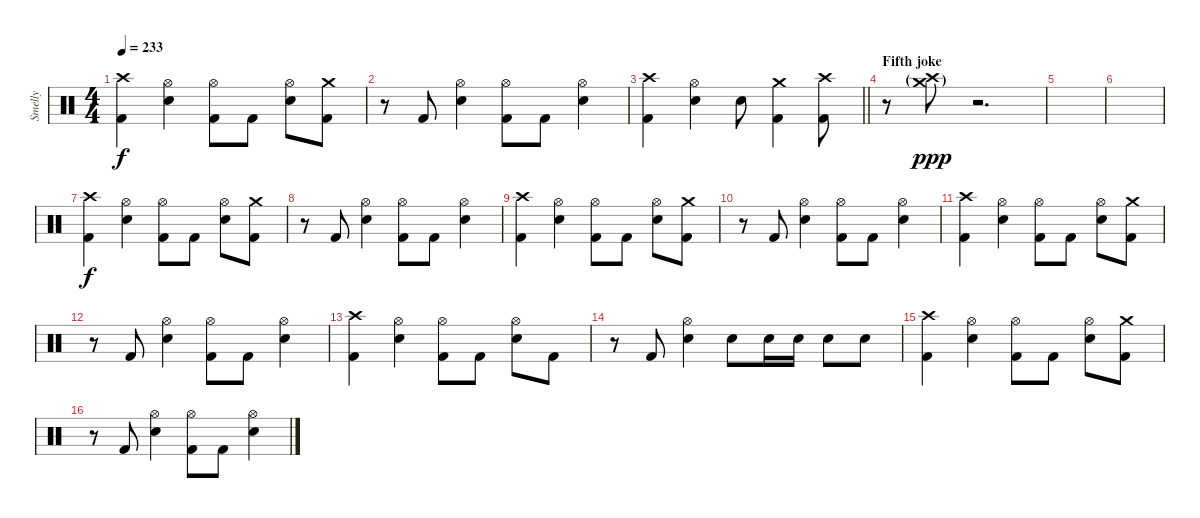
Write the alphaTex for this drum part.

\track ("Smelly" "Smelly") {instrument percussion}
\staff {score}
\articulation defaults
\ts (4 4)
\tempo 233
\clef neutral
\ks c
("Crash high (hit)" "Kick (hit) 2").4{dy f} ("Hi-Hat (open)" "Electric Snare (hit)").4 ("Hi-Hat (open)" "Kick (hit) 2").8 "Kick (hit) 2".8 ("Hi-Hat (open)" "Electric Snare (hit)").8 ("Crash medium (hit)" "Kick (hit) 2").8 |
r.8 "Kick (hit) 2".8 ("Hi-Hat (open)" "Electric Snare (hit)").4 ("Hi-Hat (open)" "Kick (hit) 2").8 "Kick (hit) 2".8 ("Hi-Hat (open)" "Electric Snare (hit)").4 |
\barLineRight lightlight
("Crash high (hit)" "Kick (hit) 2").4 ("Hi-Hat (open)" "Electric Snare (hit)").4 "Electric Snare (hit)".8 ("Crash medium (hit)" "Kick (hit) 2").4 ("Crash high (hit)" "Kick (hit) 2").8 |
\section ("" "Fifth joke")
r.8 ("Crash high (hit)"{g} "Crash medium (hit)"{g}).8{dy ppp} r.2{d} |
|
|
("Crash high (hit)" "Kick (hit) 2").4{dy f} ("Hi-Hat (open)" "Electric Snare (hit)").4 ("Hi-Hat (open)" "Kick (hit) 2").8 "Kick (hit) 2".8 ("Hi-Hat (open)" "Electric Snare (hit)").8 ("Crash medium (hit)" "Kick (hit) 2").8 |
r.8 "Kick (hit) 2".8 ("Hi-Hat (open)" "Electric Snare (hit)").4 ("Hi-Hat (open)" "Kick (hit) 2").8 "Kick (hit) 2".8 ("Hi-Hat (open)" "Electric Snare (hit)").4 |
("Crash high (hit)" "Kick (hit) 2").4 ("Hi-Hat (open)" "Electric Snare (hit)").4 ("Hi-Hat (open)" "Kick (hit) 2").8 "Kick (hit) 2".8 ("Hi-Hat (open)" "Electric Snare (hit)").8 ("Crash medium (hit)" "Kick (hit) 2").8 |
r.8 "Kick (hit) 2".8 ("Hi-Hat (open)" "Electric Snare (hit)").4 ("Hi-Hat (open)" "Kick (hit) 2").8 "Kick (hit) 2".8 ("Hi-Hat (open)" "Electric Snare (hit)").4 |
("Crash high (hit)" "Kick (hit) 2").4 ("Hi-Hat (open)" "Electric Snare (hit)").4 ("Hi-Hat (open)" "Kick (hit) 2").8 "Kick (hit) 2".8 ("Hi-Hat (open)" "Electric Snare (hit)").8 ("Crash medium (hit)" "Kick (hit) 2").8 |
r.8 "Kick (hit) 2".8 ("Hi-Hat (open)" "Electric Snare (hit)").4 ("Hi-Hat (open)" "Kick (hit) 2").8 "Kick (hit) 2".8 ("Hi-Hat (open)" "Electric Snare (hit)").4 |
("Crash high (hit)" "Kick (hit) 2").4 ("Hi-Hat (open)" "Electric Snare (hit)").4 ("Hi-Hat (open)" "Kick (hit) 2").8 "Kick (hit) 2".8 ("Hi-Hat (open)" "Electric Snare (hit)").8 "Kick (hit) 2".8 |
r.8 "Kick (hit) 2".8 ("Hi-Hat (open)" "Electric Snare (hit)").4 "Electric Snare (hit)".8 "Electric Snare (hit)".16 "Electric Snare (hit)".16 "Electric Snare (hit)".8 "Electric Snare (hit)".8 |
("Crash high (hit)" "Kick (hit) 2").4 ("Hi-Hat (open)" "Electric Snare (hit)").4 ("Hi-Hat (open)" "Kick (hit) 2").8 "Kick (hit) 2".8 ("Hi-Hat (open)" "Electric Snare (hit)").8 ("Crash medium (hit)" "Kick (hit) 2").8 |
r.8 "Kick (hit) 2".8 ("Hi-Hat (open)" "Electric Snare (hit)").4 ("Hi-Hat (open)" "Kick (hit) 2").8 "Kick (hit) 2".8 ("Hi-Hat (open)" "Electric Snare (hit)").4
